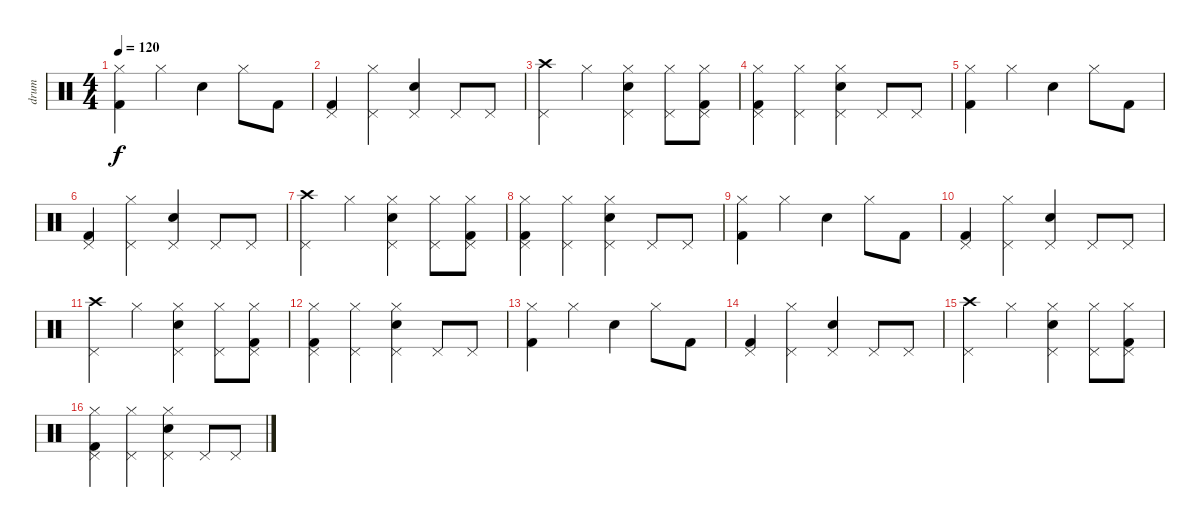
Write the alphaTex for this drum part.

\track ("drum" "drum") {instrument percussion}
\staff {score}
\articulation defaults
\ts (4 4)
\tempo 120
\clef neutral
\ks c
("Hi-Hat (closed)" "Kick (hit) 2").4{dy f} "Hi-Hat (closed)".4 "Snare (hit) 2".4 "Hi-Hat (closed)".8 "Kick (hit) 2".8 |
("Kick (hit) 2" "Pedal Hi-Hat (hit)").4 ("Hi-Hat (closed)" "Pedal Hi-Hat (hit)").4 ("Snare (hit) 2" "Pedal Hi-Hat (hit)").4 "Pedal Hi-Hat (hit)".8 "Pedal Hi-Hat (hit)".8 |
("Crash high (hit)" "Pedal Hi-Hat (hit)").4 "Hi-Hat (closed)".4 ("Snare (hit) 2" "Pedal Hi-Hat (hit)" "Hi-Hat (closed)").4 ("Hi-Hat (closed)" "Pedal Hi-Hat (hit)").8 ("Kick (hit) 2" "Pedal Hi-Hat (hit)" "Hi-Hat (closed)").8 |
("Kick (hit) 2" "Pedal Hi-Hat (hit)" "Hi-Hat (closed)").4 ("Hi-Hat (closed)" "Pedal Hi-Hat (hit)").4 ("Snare (hit) 2" "Pedal Hi-Hat (hit)" "Hi-Hat (closed)").4 "Pedal Hi-Hat (hit)".8 "Pedal Hi-Hat (hit)".8 |
("Hi-Hat (closed)" "Kick (hit) 2").4 "Hi-Hat (closed)".4 "Snare (hit) 2".4 "Hi-Hat (closed)".8 "Kick (hit) 2".8 |
("Kick (hit) 2" "Pedal Hi-Hat (hit)").4 ("Hi-Hat (closed)" "Pedal Hi-Hat (hit)").4 ("Snare (hit) 2" "Pedal Hi-Hat (hit)").4 "Pedal Hi-Hat (hit)".8 "Pedal Hi-Hat (hit)".8 |
("Crash high (hit)" "Pedal Hi-Hat (hit)").4 "Hi-Hat (closed)".4 ("Snare (hit) 2" "Pedal Hi-Hat (hit)" "Hi-Hat (closed)").4 ("Hi-Hat (closed)" "Pedal Hi-Hat (hit)").8 ("Kick (hit) 2" "Pedal Hi-Hat (hit)" "Hi-Hat (closed)").8 |
("Kick (hit) 2" "Pedal Hi-Hat (hit)" "Hi-Hat (closed)").4 ("Hi-Hat (closed)" "Pedal Hi-Hat (hit)").4 ("Snare (hit) 2" "Pedal Hi-Hat (hit)" "Hi-Hat (closed)").4 "Pedal Hi-Hat (hit)".8 "Pedal Hi-Hat (hit)".8 |
("Hi-Hat (closed)" "Kick (hit) 2").4 "Hi-Hat (closed)".4 "Snare (hit) 2".4 "Hi-Hat (closed)".8 "Kick (hit) 2".8 |
("Kick (hit) 2" "Pedal Hi-Hat (hit)").4 ("Hi-Hat (closed)" "Pedal Hi-Hat (hit)").4 ("Snare (hit) 2" "Pedal Hi-Hat (hit)").4 "Pedal Hi-Hat (hit)".8 "Pedal Hi-Hat (hit)".8 |
("Crash high (hit)" "Pedal Hi-Hat (hit)").4 "Hi-Hat (closed)".4 ("Snare (hit) 2" "Pedal Hi-Hat (hit)" "Hi-Hat (closed)").4 ("Hi-Hat (closed)" "Pedal Hi-Hat (hit)").8 ("Kick (hit) 2" "Pedal Hi-Hat (hit)" "Hi-Hat (closed)").8 |
("Kick (hit) 2" "Pedal Hi-Hat (hit)" "Hi-Hat (closed)").4 ("Hi-Hat (closed)" "Pedal Hi-Hat (hit)").4 ("Snare (hit) 2" "Pedal Hi-Hat (hit)" "Hi-Hat (closed)").4 "Pedal Hi-Hat (hit)".8 "Pedal Hi-Hat (hit)".8 |
("Hi-Hat (closed)" "Kick (hit) 2").4 "Hi-Hat (closed)".4 "Snare (hit) 2".4 "Hi-Hat (closed)".8 "Kick (hit) 2".8 |
("Kick (hit) 2" "Pedal Hi-Hat (hit)").4 ("Hi-Hat (closed)" "Pedal Hi-Hat (hit)").4 ("Snare (hit) 2" "Pedal Hi-Hat (hit)").4 "Pedal Hi-Hat (hit)".8 "Pedal Hi-Hat (hit)".8 |
("Crash high (hit)" "Pedal Hi-Hat (hit)").4 "Hi-Hat (closed)".4 ("Snare (hit) 2" "Pedal Hi-Hat (hit)" "Hi-Hat (closed)").4 ("Hi-Hat (closed)" "Pedal Hi-Hat (hit)").8 ("Kick (hit) 2" "Pedal Hi-Hat (hit)" "Hi-Hat (closed)").8 |
("Kick (hit) 2" "Pedal Hi-Hat (hit)" "Hi-Hat (closed)").4 ("Hi-Hat (closed)" "Pedal Hi-Hat (hit)").4 ("Snare (hit) 2" "Pedal Hi-Hat (hit)" "Hi-Hat (closed)").4 "Pedal Hi-Hat (hit)".8 "Pedal Hi-Hat (hit)".8
